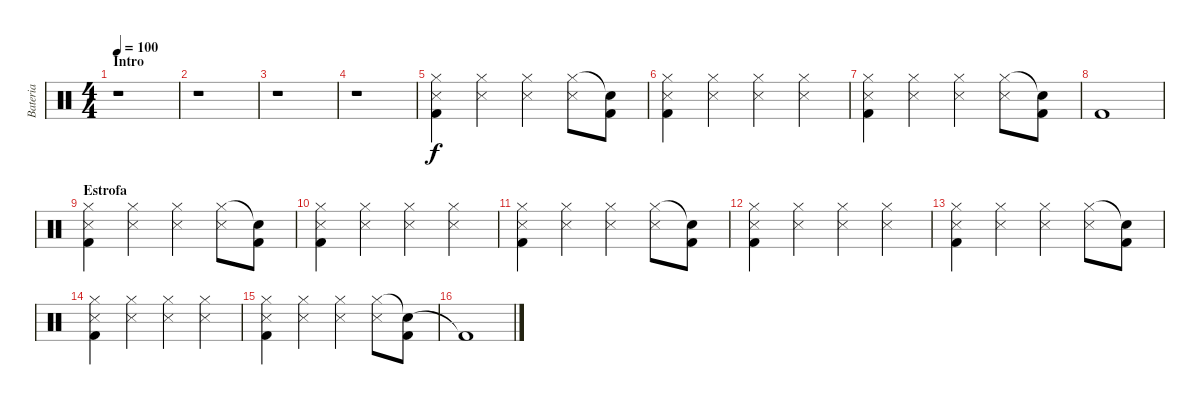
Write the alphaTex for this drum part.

\track ("Bateria" "Bateria") {instrument percussion}
\staff {score}
\articulation defaults
\ts (4 4)
\section ("" "Intro")
\tempo 100
\clef neutral
\ks c
r.1{dy f} |
r.1 |
r.1 |
r.1 |
("Hi-Hat (closed)" "Snare (side stick) 3" "Kick (hit) 2").4 ("Hi-Hat (closed)" "Snare (side stick) 3").4 ("Hi-Hat (closed)" "Snare (side stick) 3").4 ("Hi-Hat (closed)" "Snare (side stick) 3").8 ("Snare (hit)"{t} "Kick (hit) 2").8 |
("Hi-Hat (closed)" "Snare (side stick) 3" "Kick (hit) 2").4 ("Hi-Hat (closed)" "Snare (side stick) 3").4 ("Hi-Hat (closed)" "Snare (side stick) 3").4 ("Hi-Hat (closed)" "Snare (side stick) 3").4 |
("Hi-Hat (closed)" "Snare (side stick) 3" "Kick (hit) 2").4 ("Hi-Hat (closed)" "Snare (side stick) 3").4 ("Hi-Hat (closed)" "Snare (side stick) 3").4 ("Hi-Hat (closed)" "Snare (side stick) 3").8 ("Snare (hit)"{t} "Kick (hit) 2").8 |
"Kick (hit) 2".1 |
\section ("" "Estrofa")
("Hi-Hat (closed)" "Snare (side stick) 3" "Kick (hit) 2").4 ("Hi-Hat (closed)" "Snare (side stick) 3").4 ("Hi-Hat (closed)" "Snare (side stick) 3").4 ("Hi-Hat (closed)" "Snare (side stick) 3").8 ("Snare (hit)"{t} "Kick (hit) 2").8 |
("Hi-Hat (closed)" "Snare (side stick) 3" "Kick (hit) 2").4 ("Hi-Hat (closed)" "Snare (side stick) 3").4 ("Hi-Hat (closed)" "Snare (side stick) 3").4 ("Hi-Hat (closed)" "Snare (side stick) 3").4 |
("Hi-Hat (closed)" "Snare (side stick) 3" "Kick (hit) 2").4 ("Hi-Hat (closed)" "Snare (side stick) 3").4 ("Hi-Hat (closed)" "Snare (side stick) 3").4 ("Hi-Hat (closed)" "Snare (side stick) 3").8 ("Snare (hit)"{t} "Kick (hit) 2").8 |
("Hi-Hat (closed)" "Snare (side stick) 3" "Kick (hit) 2").4 ("Hi-Hat (closed)" "Snare (side stick) 3").4 ("Hi-Hat (closed)" "Snare (side stick) 3").4 ("Hi-Hat (closed)" "Snare (side stick) 3").4 |
("Hi-Hat (closed)" "Snare (side stick) 3" "Kick (hit) 2").4 ("Hi-Hat (closed)" "Snare (side stick) 3").4 ("Hi-Hat (closed)" "Snare (side stick) 3").4 ("Hi-Hat (closed)" "Snare (side stick) 3").8 ("Snare (hit)"{t} "Kick (hit) 2").8 |
("Hi-Hat (closed)" "Snare (side stick) 3" "Kick (hit) 2").4 ("Hi-Hat (closed)" "Snare (side stick) 3").4 ("Hi-Hat (closed)" "Snare (side stick) 3").4 ("Hi-Hat (closed)" "Snare (side stick) 3").4 |
("Hi-Hat (closed)" "Snare (side stick) 3" "Kick (hit) 2").4 ("Hi-Hat (closed)" "Snare (side stick) 3").4 ("Hi-Hat (closed)" "Snare (side stick) 3").4 ("Hi-Hat (closed)" "Snare (side stick) 3").8 ("Snare (hit)"{t} "Kick (hit) 2").8 |
"Kick (hit) 2"{t}.1
